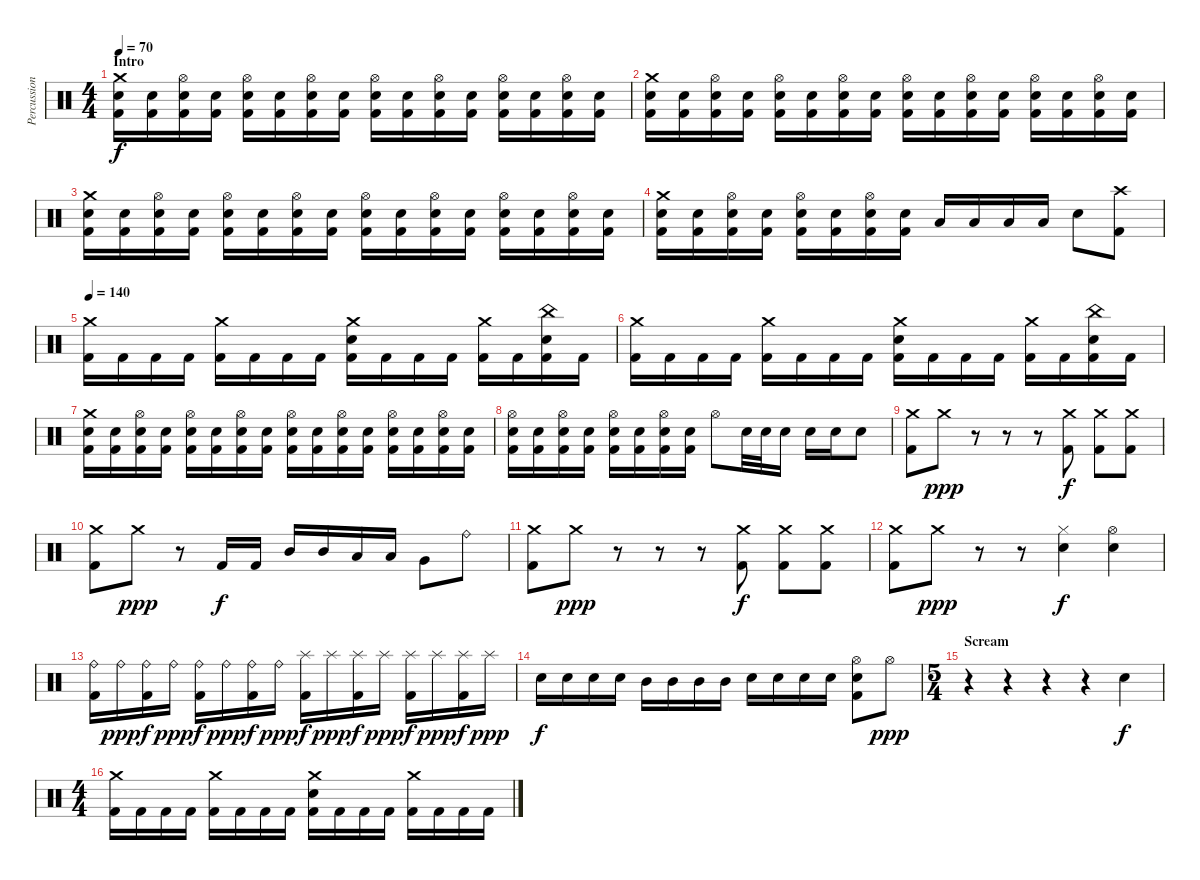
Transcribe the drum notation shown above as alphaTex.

\track ("Percussion" "Percussion") {instrument percussion}
\staff {score}
\articulation defaults
\ts (4 4)
\section ("" "Intro")
\tempo 70
\tempo 155
\tempo 70
\clef neutral
\ks c
("Crash medium (hit)" "Electric Snare (hit)" "Kick (hit) 2").16{dy f} ("Electric Snare (hit)" "Kick (hit) 2").16 ("Hi-Hat (open)" "Electric Snare (hit)" "Kick (hit) 2").16 ("Electric Snare (hit)" "Kick (hit) 2").16 ("Hi-Hat (open)" "Electric Snare (hit)" "Kick (hit) 2").16 ("Electric Snare (hit)" "Kick (hit) 2").16 ("Hi-Hat (open)" "Electric Snare (hit)" "Kick (hit) 2").16 ("Electric Snare (hit)" "Kick (hit) 2").16 ("Hi-Hat (open)" "Electric Snare (hit)" "Kick (hit) 2").16 ("Electric Snare (hit)" "Kick (hit) 2").16 ("Hi-Hat (open)" "Electric Snare (hit)" "Kick (hit) 2").16 ("Electric Snare (hit)" "Kick (hit) 2").16 ("Hi-Hat (open)" "Electric Snare (hit)" "Kick (hit) 2").16 ("Electric Snare (hit)" "Kick (hit) 2").16 ("Hi-Hat (open)" "Electric Snare (hit)" "Kick (hit) 2").16 ("Electric Snare (hit)" "Kick (hit) 2").16 |
("Crash medium (hit)" "Electric Snare (hit)" "Kick (hit) 2").16 ("Electric Snare (hit)" "Kick (hit) 2").16 ("Hi-Hat (open)" "Electric Snare (hit)" "Kick (hit) 2").16 ("Electric Snare (hit)" "Kick (hit) 2").16 ("Hi-Hat (open)" "Electric Snare (hit)" "Kick (hit) 2").16 ("Electric Snare (hit)" "Kick (hit) 2").16 ("Hi-Hat (open)" "Electric Snare (hit)" "Kick (hit) 2").16 ("Electric Snare (hit)" "Kick (hit) 2").16 ("Hi-Hat (open)" "Electric Snare (hit)" "Kick (hit) 2").16 ("Electric Snare (hit)" "Kick (hit) 2").16 ("Hi-Hat (open)" "Electric Snare (hit)" "Kick (hit) 2").16 ("Electric Snare (hit)" "Kick (hit) 2").16 ("Hi-Hat (open)" "Electric Snare (hit)" "Kick (hit) 2").16 ("Electric Snare (hit)" "Kick (hit) 2").16 ("Hi-Hat (open)" "Electric Snare (hit)" "Kick (hit) 2").16 ("Electric Snare (hit)" "Kick (hit) 2").16 |
("Crash medium (hit)" "Electric Snare (hit)" "Kick (hit) 2").16 ("Electric Snare (hit)" "Kick (hit) 2").16 ("Hi-Hat (open)" "Electric Snare (hit)" "Kick (hit) 2").16 ("Electric Snare (hit)" "Kick (hit) 2").16 ("Hi-Hat (open)" "Electric Snare (hit)" "Kick (hit) 2").16 ("Electric Snare (hit)" "Kick (hit) 2").16 ("Hi-Hat (open)" "Electric Snare (hit)" "Kick (hit) 2").16 ("Electric Snare (hit)" "Kick (hit) 2").16 ("Hi-Hat (open)" "Electric Snare (hit)" "Kick (hit) 2").16 ("Electric Snare (hit)" "Kick (hit) 2").16 ("Hi-Hat (open)" "Electric Snare (hit)" "Kick (hit) 2").16 ("Electric Snare (hit)" "Kick (hit) 2").16 ("Hi-Hat (open)" "Electric Snare (hit)" "Kick (hit) 2").16 ("Electric Snare (hit)" "Kick (hit) 2").16 ("Hi-Hat (open)" "Electric Snare (hit)" "Kick (hit) 2").16 ("Electric Snare (hit)" "Kick (hit) 2").16 |
("Crash medium (hit)" "Electric Snare (hit)" "Kick (hit) 2").16 ("Electric Snare (hit)" "Kick (hit) 2").16 ("Hi-Hat (open)" "Electric Snare (hit)" "Kick (hit) 2").16 ("Electric Snare (hit)" "Kick (hit) 2").16 ("Hi-Hat (open)" "Electric Snare (hit)" "Kick (hit) 2").16 ("Electric Snare (hit)" "Kick (hit) 2").16 ("Hi-Hat (open)" "Electric Snare (hit)" "Kick (hit) 2").16 ("Electric Snare (hit)" "Kick (hit) 2").16 "Low Tom (hit)".16 "Low Tom (hit)".16 "Low Tom (hit)".16 "Low Tom (hit)".16 "Electric Snare (hit)".8 ("Crash high (hit)" "Kick (hit) 2").8 |
\tempo 140
("Crash medium (hit)" "Kick (hit) 2").16 "Kick (hit) 2".16 "Kick (hit) 2".16 "Kick (hit) 2".16 ("Crash medium (hit)" "Kick (hit) 2").16 "Kick (hit) 2".16 "Kick (hit) 2".16 "Kick (hit) 2".16 ("Crash medium (hit)" "Electric Snare (hit)" "Kick (hit) 2").16 "Kick (hit) 2".16 "Kick (hit) 2".16 "Kick (hit) 2".16 ("Crash medium (hit)" "Kick (hit) 2").16 "Kick (hit) 2".16 ("China (hit)" "Electric Snare (hit)" "Kick (hit) 2").16 "Kick (hit) 2".16 |
("Crash medium (hit)" "Kick (hit) 2").16 "Kick (hit) 2".16 "Kick (hit) 2".16 "Kick (hit) 2".16 ("Crash medium (hit)" "Kick (hit) 2").16 "Kick (hit) 2".16 "Kick (hit) 2".16 "Kick (hit) 2".16 ("Crash medium (hit)" "Electric Snare (hit)" "Kick (hit) 2").16 "Kick (hit) 2".16 "Kick (hit) 2".16 "Kick (hit) 2".16 ("Crash medium (hit)" "Kick (hit) 2").16 "Kick (hit) 2".16 ("China (hit)" "Electric Snare (hit)" "Kick (hit) 2").16 "Kick (hit) 2".16 |
("Crash medium (hit)" "Electric Snare (hit)" "Kick (hit) 2").16 ("Electric Snare (hit)" "Kick (hit) 2").16 ("Hi-Hat (open)" "Electric Snare (hit)" "Kick (hit) 2").16 ("Electric Snare (hit)" "Kick (hit) 2").16 ("Hi-Hat (open)" "Electric Snare (hit)" "Kick (hit) 2").16 ("Electric Snare (hit)" "Kick (hit) 2").16 ("Hi-Hat (open)" "Electric Snare (hit)" "Kick (hit) 2").16 ("Electric Snare (hit)" "Kick (hit) 2").16 ("Hi-Hat (open)" "Electric Snare (hit)" "Kick (hit) 2").16 ("Electric Snare (hit)" "Kick (hit) 2").16 ("Hi-Hat (open)" "Electric Snare (hit)" "Kick (hit) 2").16 ("Electric Snare (hit)" "Kick (hit) 2").16 ("Hi-Hat (open)" "Electric Snare (hit)" "Kick (hit) 2").16 ("Electric Snare (hit)" "Kick (hit) 2").16 ("Hi-Hat (open)" "Electric Snare (hit)" "Kick (hit) 2").16 ("Electric Snare (hit)" "Kick (hit) 2").16 |
("Hi-Hat (open)" "Electric Snare (hit)" "Kick (hit) 2").16 ("Electric Snare (hit)" "Kick (hit) 2").16 ("Hi-Hat (open)" "Electric Snare (hit)" "Kick (hit) 2").16 ("Electric Snare (hit)" "Kick (hit) 2").16 ("Hi-Hat (open)" "Electric Snare (hit)" "Kick (hit) 2").16 ("Electric Snare (hit)" "Kick (hit) 2").16 ("Hi-Hat (open)" "Electric Snare (hit)" "Kick (hit) 2").16 ("Electric Snare (hit)" "Kick (hit) 2").16 "Hi-Hat (open)".8 "Electric Snare (hit)".32 "Electric Snare (hit)".32 "Electric Snare (hit)".16 "Electric Snare (hit)".16 "Electric Snare (hit)".16 "Electric Snare (hit)".8 |
("Crash medium (hit)" "Kick (hit) 2").8 "Crash medium (hit)".8{dy ppp} r.8 r.8 r.8 ("Crash medium (hit)" "Kick (hit) 2").8{dy f} ("Crash medium (hit)" "Kick (hit) 2").8 ("Crash medium (hit)" "Kick (hit) 2").8 |
("Crash medium (hit)" "Kick (hit) 2").8 "Crash medium (hit)".8{dy ppp} r.8 "Kick (hit) 2".16{dy f} "Kick (hit) 2".16 "Mid Tom (hit)".16 "Mid Tom (hit)".16 "Low Tom (hit)".16 "Low Tom (hit)".16 "Very Low Tom (hit)".8 "Ride (bell)".8 |
("Crash medium (hit)" "Kick (hit) 2").8 "Crash medium (hit)".8{dy ppp} r.8 r.8 r.8 ("Crash medium (hit)" "Kick (hit) 2").8{dy f} ("Crash medium (hit)" "Kick (hit) 2").8 ("Crash medium (hit)" "Kick (hit) 2").8 |
("Crash medium (hit)" "Kick (hit) 2").8 "Crash medium (hit)".8{dy ppp} r.8 r.8 ("Hi-Hat (closed)" "Electric Snare (hit)").4{dy f} ("Hi-Hat (open)" "Electric Snare (hit)").4 |
("Ride (bell)" "Kick (hit) 2").16 "Ride (bell)".16{dy ppp} ("Ride (bell)" "Kick (hit) 2").16{dy f} "Ride (bell)".16{dy ppp} ("Ride (bell)" "Kick (hit) 2").16{dy f} "Ride (bell)".16{dy ppp} ("Ride (bell)" "Kick (hit) 2").16{dy f} "Ride (bell)".16{dy ppp} ("Splash (hit)" "Kick (hit) 2").16{dy f} "Splash (hit)".16{dy ppp} ("Splash (hit)" "Kick (hit) 2").16{dy f} "Splash (hit)".16{dy ppp} ("Splash (hit)" "Kick (hit) 2").16{dy f} "Splash (hit)".16{dy ppp} ("Splash (hit)" "Kick (hit) 2").16{dy f} "Splash (hit)".16{dy ppp} |
"Electric Snare (hit)".16{dy f} "Electric Snare (hit)".16 "Electric Snare (hit)".16 "Electric Snare (hit)".16 "Mid Tom (hit)".16 "Mid Tom (hit)".16 "Mid Tom (hit)".16 "Mid Tom (hit)".16 "Electric Snare (hit)".16 "Electric Snare (hit)".16 "Electric Snare (hit)".16 "Electric Snare (hit)".16 ("Hi-Hat (open)" "Electric Snare (hit)" "Kick (hit) 2").8 "Hi-Hat (open)".8{dy ppp} |
\ts (5 4)
\section ("" "Scream")
r.4 r.4 r.4 r.4 "Electric Snare (hit)".4{dy f} |
\ts (4 4)
("Crash medium (hit)" "Kick (hit) 2").16 "Kick (hit) 2".16 "Kick (hit) 2".16 "Kick (hit) 2".16 ("Crash medium (hit)" "Kick (hit) 2").16 "Kick (hit) 2".16 "Kick (hit) 2".16 "Kick (hit) 2".16 ("Crash medium (hit)" "Electric Snare (hit)" "Kick (hit) 2").16 "Kick (hit) 2".16 "Kick (hit) 2".16 "Kick (hit) 2".16 ("Crash medium (hit)" "Kick (hit) 2").16 "Kick (hit) 2".16 "Kick (hit) 2".16 "Kick (hit) 2".16
